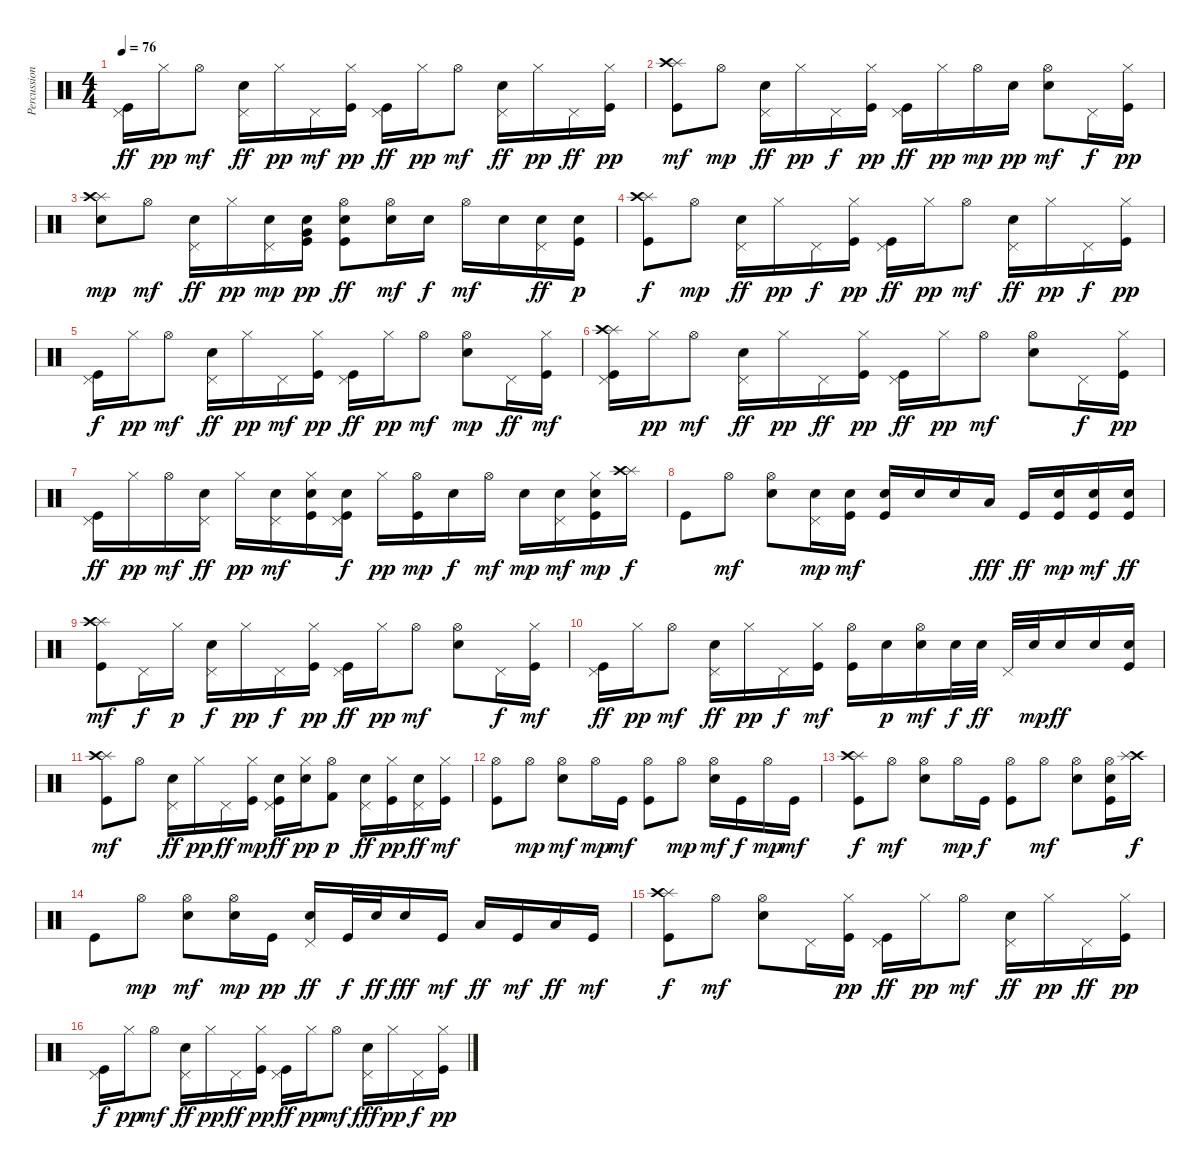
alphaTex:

\track ("Percussion" "Percussion") {instrument percussion}
\staff {score}
\articulation defaults
\ts (4 4)
\tempo 76
\clef neutral
\ks c
("Pedal Hi-Hat (hit)" "Kick (hit)").16{dy ff} "Hi-Hat (closed)".16{dy pp} "Hi-Hat (open)".8{dy mf} ("Pedal Hi-Hat (hit)" "Snare (hit) 2").16{dy ff} "Hi-Hat (closed)".16{dy pp} "Pedal Hi-Hat (hit)".16{dy mf} ("Hi-Hat (closed)" "Kick (hit)").16{dy pp} ("Pedal Hi-Hat (hit)" "Kick (hit)").16{dy ff} "Hi-Hat (closed)".16{dy pp} "Hi-Hat (open)".8{dy mf} ("Pedal Hi-Hat (hit)" "Snare (hit) 2").16{dy ff} "Hi-Hat (closed)".16{dy pp} "Pedal Hi-Hat (hit)".16{dy ff} ("Hi-Hat (closed)" "Kick (hit)").16{dy pp} |
("Splash (hit)" "Crash high (hit)" "Kick (hit)").8{dy mf} "Hi-Hat (open)".8{dy mp} ("Pedal Hi-Hat (hit)" "Snare (hit) 2").16{dy ff} "Hi-Hat (closed)".16{dy pp} "Pedal Hi-Hat (hit)".16{dy f} ("Hi-Hat (closed)" "Kick (hit)").16{dy pp} ("Pedal Hi-Hat (hit)" "Kick (hit)").16{dy ff} "Hi-Hat (closed)".16{dy pp} "Hi-Hat (open)".16{dy mp} "Snare (hit) 2".16{dy pp} ("Hi-Hat (open)" "Snare (hit) 2").8{dy mf} "Pedal Hi-Hat (hit)".16{dy f} ("Hi-Hat (closed)" "Kick (hit)").16{dy pp} |
("Splash (hit)" "Crash high (hit)" "Snare (hit) 2").8{dy mp} "Hi-Hat (open)".8{dy mf} ("Pedal Hi-Hat (hit)" "Snare (hit) 2").16{dy ff} "Hi-Hat (closed)".16{dy pp} ("Pedal Hi-Hat (hit)" "Snare (hit) 2").16{dy mp} ("Very Low Tom (hit)" "Snare (hit) 2" "Kick (hit)").16{dy pp} ("Hi-Hat (open)" "Snare (hit) 2" "Kick (hit)").8{dy ff} ("Hi-Hat (open)" "Snare (hit) 2").16{dy mf} "Snare (hit) 2".16{dy f} "Hi-Hat (open)".16{dy mf} "Snare (hit) 2".16 ("Pedal Hi-Hat (hit)" "Snare (hit) 2").16{dy ff} ("Snare (hit) 2" "Kick (hit)").16{dy p} |
("Splash (hit)" "Crash high (hit)" "Kick (hit)").8{dy f} "Hi-Hat (open)".8{dy mp} ("Pedal Hi-Hat (hit)" "Snare (hit) 2").16{dy ff} "Hi-Hat (closed)".16{dy pp} "Pedal Hi-Hat (hit)".16{dy f} ("Hi-Hat (closed)" "Kick (hit)").16{dy pp} ("Pedal Hi-Hat (hit)" "Kick (hit)").16{dy ff} "Hi-Hat (closed)".16{dy pp} "Hi-Hat (open)".8{dy mf} ("Pedal Hi-Hat (hit)" "Snare (hit) 2").16{dy ff} "Hi-Hat (closed)".16{dy pp} "Pedal Hi-Hat (hit)".16{dy f} ("Hi-Hat (closed)" "Kick (hit)").16{dy pp} |
("Pedal Hi-Hat (hit)" "Kick (hit)").16{dy f} "Hi-Hat (closed)".16{dy pp} "Hi-Hat (open)".8{dy mf} ("Pedal Hi-Hat (hit)" "Snare (hit) 2").16{dy ff} "Hi-Hat (closed)".16{dy pp} "Pedal Hi-Hat (hit)".16{dy mf} ("Hi-Hat (closed)" "Kick (hit)").16{dy pp} ("Pedal Hi-Hat (hit)" "Kick (hit)").16{dy ff} "Hi-Hat (closed)".16{dy pp} "Hi-Hat (open)".8{dy mf} ("Hi-Hat (open)" "Snare (hit) 2").8{dy mp} "Pedal Hi-Hat (hit)".16{dy ff} ("Hi-Hat (closed)" "Kick (hit)").16{dy mf} |
("Splash (hit)" "Crash high (hit)" "Pedal Hi-Hat (hit)" "Kick (hit)").16 "Hi-Hat (closed)".16{dy pp} "Hi-Hat (open)".8{dy mf} ("Pedal Hi-Hat (hit)" "Snare (hit) 2").16{dy ff} "Hi-Hat (closed)".16{dy pp} "Pedal Hi-Hat (hit)".16{dy ff} ("Kick (hit)" "Hi-Hat (closed)").16{dy pp} ("Pedal Hi-Hat (hit)" "Kick (hit)").16{dy ff} "Hi-Hat (closed)".16{dy pp} "Hi-Hat (open)".8{dy mf} ("Snare (hit) 2" "Hi-Hat (open)").8 "Pedal Hi-Hat (hit)".16{dy f} ("Hi-Hat (closed)" "Kick (hit)").16{dy pp} |
("Pedal Hi-Hat (hit)" "Kick (hit)").16{dy ff} "Hi-Hat (closed)".16{dy pp} "Hi-Hat (open)".16{dy mf} ("Pedal Hi-Hat (hit)" "Snare (hit) 2").16{dy ff} "Hi-Hat (closed)".16{dy pp} ("Pedal Hi-Hat (hit)" "Snare (hit) 2").16{dy mf} ("Hi-Hat (closed)" "Snare (hit) 2" "Kick (hit)").16 ("Pedal Hi-Hat (hit)" "Snare (hit) 2" "Kick (hit)").16{dy f} "Hi-Hat (closed)".16{dy pp} ("Hi-Hat (open)" "Kick (hit)").16{dy mp} "Snare (hit) 2".16{dy f} "Hi-Hat (open)".16{dy mf} "Snare (hit) 2".16{dy mp} ("Pedal Hi-Hat (hit)" "Snare (hit) 2").16{dy mf} ("Hi-Hat (closed)" "Snare (hit) 2" "Kick (hit)").16{dy mp} ("Splash (hit)" "Crash high (hit)").16{dy f} |
"Kick (hit)".8 "Hi-Hat (open)".8{dy mf} ("Hi-Hat (open)" "Snare (hit) 2").8 ("Pedal Hi-Hat (hit)" "Snare (hit) 2").16{dy mp} ("Snare (hit) 2" "Kick (hit)").16{dy mf} ("Snare (hit) 2" "Kick (hit)").16 "Snare (hit) 2".16 "Snare (hit) 2".16 "Low Tom (hit)".16{dy fff} "Kick (hit)".16{dy ff} ("Snare (hit) 2" "Kick (hit)").16{dy mp} ("Snare (hit) 2" "Kick (hit)").16{dy mf} ("Snare (hit) 2" "Kick (hit)").16{dy ff} |
("Splash (hit)" "Crash high (hit)" "Kick (hit)").8{dy mf} "Pedal Hi-Hat (hit)".16{dy f} "Hi-Hat (closed)".16{dy p} ("Pedal Hi-Hat (hit)" "Snare (hit) 2").16{dy f} "Hi-Hat (closed)".16{dy pp} "Pedal Hi-Hat (hit)".16{dy f} ("Hi-Hat (closed)" "Kick (hit)").16{dy pp} ("Pedal Hi-Hat (hit)" "Kick (hit)").16{dy ff} "Hi-Hat (closed)".16{dy pp} "Hi-Hat (open)".8{dy mf} ("Hi-Hat (open)" "Snare (hit) 2").8 "Pedal Hi-Hat (hit)".16{dy f} ("Hi-Hat (closed)" "Kick (hit)").16{dy mf} |
("Kick (hit)" "Pedal Hi-Hat (hit)").16{dy ff} "Hi-Hat (closed)".16{dy pp} "Hi-Hat (open)".8{dy mf} ("Pedal Hi-Hat (hit)" "Snare (hit) 2").16{dy ff} "Hi-Hat (closed)".16{dy pp} "Pedal Hi-Hat (hit)".16{dy f} ("Hi-Hat (closed)" "Kick (hit)").16{dy mf} ("Hi-Hat (open)" "Kick (hit)").16 "Snare (hit) 2".16{dy p} ("Hi-Hat (open)" "Snare (hit) 2").16{dy mf} "Snare (hit) 2".32{dy f} "Snare (hit) 2".32{dy ff} "Pedal Hi-Hat (hit)".32 "Snare (hit) 2".32{dy mp} "Snare (hit) 2".16{dy ff} "Snare (hit) 2".16 ("Snare (hit) 2" "Kick (hit)").16 |
("Splash (hit)" "Crash high (hit)" "Kick (hit)").8{dy mf} "Hi-Hat (open)".8 ("Pedal Hi-Hat (hit)" "Snare (hit) 2").16{dy ff} "Hi-Hat (closed)".16{dy pp} "Pedal Hi-Hat (hit)".16{dy ff} ("Hi-Hat (closed)" "Kick (hit)").16{dy mp} ("Pedal Hi-Hat (hit)" "Snare (hit) 2" "Kick (hit)").16{dy ff} ("Hi-Hat (closed)" "Snare (hit) 2").16{dy pp} ("Hi-Hat (open)" "Kick (hit) 2").8{dy p} ("Pedal Hi-Hat (hit)" "Snare (hit) 2").16{dy ff} ("Hi-Hat (closed)" "Kick (hit)").16{dy pp} ("Pedal Hi-Hat (hit)" "Snare (hit) 2").16{dy ff} ("Hi-Hat (closed)" "Kick (hit)").16{dy mf} |
("Hi-Hat (open)" "Kick (hit)").8 "Hi-Hat (open)".8{dy mp} ("Hi-Hat (open)" "Snare (hit) 2").8{dy mf} "Hi-Hat (open)".16{dy mp} "Kick (hit)".16{dy mf} ("Hi-Hat (open)" "Kick (hit)").8 "Hi-Hat (open)".8{dy mp} ("Hi-Hat (open)" "Snare (hit) 2").16{dy mf} "Kick (hit)".16{dy f} "Hi-Hat (open)".16{dy mp} "Kick (hit)".16{dy mf} |
("Splash (hit)" "Crash high (hit)" "Kick (hit)").8{dy f} "Hi-Hat (open)".8{dy mf} ("Hi-Hat (open)" "Snare (hit) 2").8 "Hi-Hat (open)".16{dy mp} "Kick (hit)".16{dy f} ("Hi-Hat (open)" "Kick (hit)").8 "Hi-Hat (open)".8{dy mf} ("Snare (hit) 2" "Hi-Hat (open)").8 ("Hi-Hat (open)" "Snare (hit) 2" "Kick (hit)").16 ("Crash high (hit)" "Splash (hit)").16{dy f} |
"Kick (hit)".8 "Hi-Hat (open)".8{dy mp} ("Hi-Hat (open)" "Snare (hit) 2").8{dy mf} ("Hi-Hat (open)" "Snare (hit) 2").16{dy mp} "Kick (hit)".16{dy pp} ("Snare (hit) 2" "Pedal Hi-Hat (hit)").16{dy ff} "Kick (hit)".32{dy f} "Snare (hit) 2".32{dy ff} "Snare (hit) 2".16{dy fff} "Kick (hit)".16{dy mf} "Low Tom (hit)".16{dy ff} "Kick (hit)".16{dy mf} "Low Tom (hit)".16{dy ff} "Kick (hit)".16{dy mf} |
("Splash (hit)" "Crash high (hit)" "Kick (hit)").8{dy f} "Hi-Hat (open)".8{dy mf} ("Hi-Hat (open)" "Snare (hit) 2").8 "Pedal Hi-Hat (hit)".16 ("Hi-Hat (closed)" "Kick (hit)").16{dy pp} ("Pedal Hi-Hat (hit)" "Kick (hit)").16{dy ff} "Hi-Hat (closed)".16{dy pp} "Hi-Hat (open)".8{dy mf} ("Pedal Hi-Hat (hit)" "Snare (hit) 2").16{dy ff} "Hi-Hat (closed)".16{dy pp} "Pedal Hi-Hat (hit)".16{dy ff} ("Hi-Hat (closed)" "Kick (hit)").16{dy pp} |
("Pedal Hi-Hat (hit)" "Kick (hit)").16{dy f} "Hi-Hat (closed)".16{dy pp} "Hi-Hat (open)".8{dy mf} ("Pedal Hi-Hat (hit)" "Snare (hit) 2").16{dy ff} "Hi-Hat (closed)".16{dy pp} "Pedal Hi-Hat (hit)".16{dy ff} ("Hi-Hat (closed)" "Kick (hit)").16{dy pp} ("Pedal Hi-Hat (hit)" "Kick (hit)").16{dy ff} "Hi-Hat (closed)".16{dy pp} "Hi-Hat (open)".8{dy mf} ("Pedal Hi-Hat (hit)" "Snare (hit) 2").16{dy fff} "Hi-Hat (closed)".16{dy pp} "Pedal Hi-Hat (hit)".16{dy f} ("Hi-Hat (closed)" "Kick (hit)").16{dy pp}
